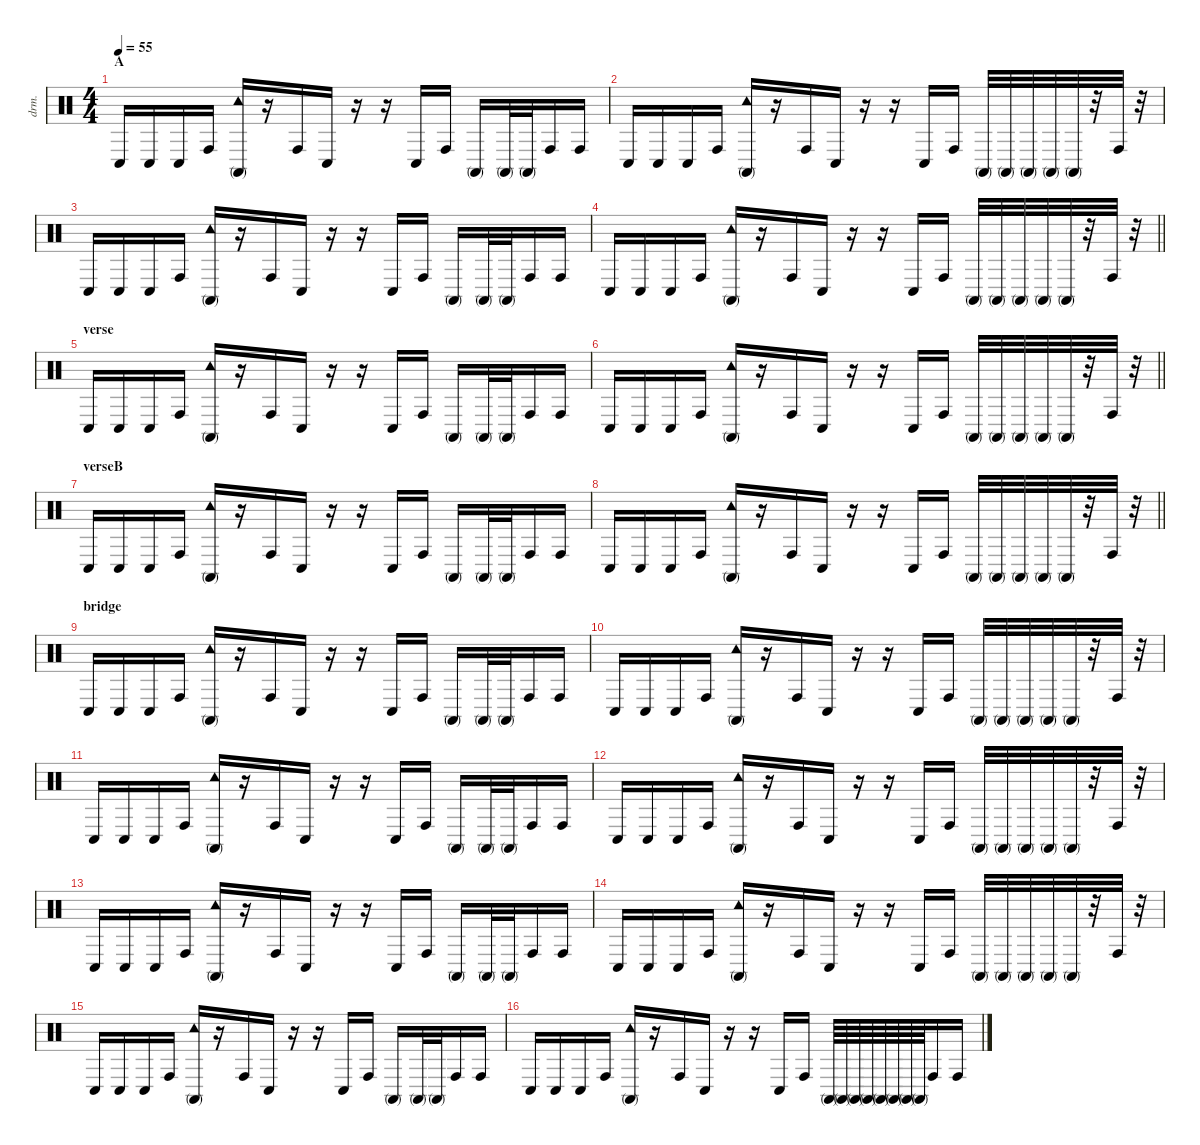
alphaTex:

\defaultSystemsLayout 4
\hideDynamics
\bracketExtendMode nobrackets
\otherSystemsTrackNameOrientation horizontal
\track ("Percussion" "drm.") {instrument percussion}
\staff {score}
\articulation defaults
\ts (4 4)
\beaming (8 2 2 2 2)
\section ("" "A")
\tempo 55
\clef neutral
\ks c "Conga low (hit)".16{dy f beam Up} "Conga low (hit)".16{beam Up} "Conga low (hit)".16{beam Up} "Conga high (hit)".16{beam Up}
("Conga high (mute)" "Tambourine (hit)").16{beam Up} r.16{beam Up} "Conga high (hit)".16{beam Up} "Conga low (hit)".16{beam Up} r.16{beam Up} r.16{beam Up} "Conga low (hit)".16{beam Up} "Conga high (hit)".16{beam Up} "Conga high (mute)".16{beam Up} "Conga high (mute)".32{beam Up} "Conga high (mute)".32{beam Up} "Conga high (hit)".16{beam Up} "Conga high (hit)".16{beam Up} |
"Conga low (hit)".16{beam Up} "Conga low (hit)".16{beam Up} "Conga low (hit)".16{beam Up} "Conga high (hit)".16{beam Up} ("Conga high (mute)" "Tambourine (hit)").16{beam Up} r.16{beam Up} "Conga high (hit)".16{beam Up} "Conga low (hit)".16{beam Up} r.16{beam Up} r.16{beam Up} "Conga low (hit)".16{beam Up} "Conga high (hit)".16{beam Up} "Conga high (mute)".32{beam Up} "Conga high (mute)".32{beam Up} "Conga high (mute)".32{beam Up} "Conga high (mute)".32{beam Up} "Conga high (mute)".32{beam Up} r.32{beam Up} "Conga high (hit)".32{beam Up} r.32{beam Up} |
"Conga low (hit)".16{beam Up} "Conga low (hit)".16{beam Up} "Conga low (hit)".16{beam Up} "Conga high (hit)".16{beam Up} ("Conga high (mute)" "Tambourine (hit)").16{beam Up} r.16{beam Up} "Conga high (hit)".16{beam Up} "Conga low (hit)".16{beam Up} r.16{beam Up} r.16{beam Up} "Conga low (hit)".16{beam Up} "Conga high (hit)".16{beam Up} "Conga high (mute)".16{beam Up} "Conga high (mute)".32{beam Up} "Conga high (mute)".32{beam Up} "Conga high (hit)".16{beam Up} "Conga high (hit)".16{beam Up} |
\barLineRight lightlight "Conga low (hit)".16{beam Up} "Conga low (hit)".16{beam Up} "Conga low (hit)".16{beam Up} "Conga high (hit)".16{beam Up}
("Conga high (mute)" "Tambourine (hit)").16{beam Up} r.16{beam Up} "Conga high (hit)".16{beam Up} "Conga low (hit)".16{beam Up} r.16{beam Up} r.16{beam Up} "Conga low (hit)".16{beam Up} "Conga high (hit)".16{beam Up} "Conga high (mute)".32{beam Up} "Conga high (mute)".32{beam Up} "Conga high (mute)".32{beam Up} "Conga high (mute)".32{beam Up} "Conga high (mute)".32{beam Up} r.32{beam Up} "Conga high (hit)".32{beam Up} r.32{beam Up} |
\section ("" "verse")
"Conga low (hit)".16{beam Up} "Conga low (hit)".16{beam Up} "Conga low (hit)".16{beam Up} "Conga high (hit)".16{beam Up} ("Conga high (mute)" "Tambourine (hit)").16{beam Up} r.16{beam Up} "Conga high (hit)".16{beam Up} "Conga low (hit)".16{beam Up} r.16{beam Up} r.16{beam Up} "Conga low (hit)".16{beam Up} "Conga high (hit)".16{beam Up} "Conga high (mute)".16{beam Up} "Conga high (mute)".32{beam Up} "Conga high (mute)".32{beam Up} "Conga high (hit)".16{beam Up} "Conga high (hit)".16{beam Up} |
\barLineRight lightlight "Conga low (hit)".16{beam Up} "Conga low (hit)".16{beam Up} "Conga low (hit)".16{beam Up} "Conga high (hit)".16{beam Up}
("Conga high (mute)" "Tambourine (hit)").16{beam Up} r.16{beam Up} "Conga high (hit)".16{beam Up} "Conga low (hit)".16{beam Up} r.16{beam Up} r.16{beam Up} "Conga low (hit)".16{beam Up} "Conga high (hit)".16{beam Up} "Conga high (mute)".32{beam Up} "Conga high (mute)".32{beam Up} "Conga high (mute)".32{beam Up} "Conga high (mute)".32{beam Up} "Conga high (mute)".32{beam Up} r.32{beam Up} "Conga high (hit)".32{beam Up} r.32{beam Up} |
\section ("" "verseB")
"Conga low (hit)".16{beam Up} "Conga low (hit)".16{beam Up} "Conga low (hit)".16{beam Up} "Conga high (hit)".16{beam Up} ("Conga high (mute)" "Tambourine (hit)").16{beam Up} r.16{beam Up} "Conga high (hit)".16{beam Up} "Conga low (hit)".16{beam Up} r.16{beam Up} r.16{beam Up} "Conga low (hit)".16{beam Up} "Conga high (hit)".16{beam Up} "Conga high (mute)".16{beam Up} "Conga high (mute)".32{beam Up} "Conga high (mute)".32{beam Up} "Conga high (hit)".16{beam Up} "Conga high (hit)".16{beam Up} |
\barLineRight lightlight "Conga low (hit)".16{beam Up} "Conga low (hit)".16{beam Up} "Conga low (hit)".16{beam Up} "Conga high (hit)".16{beam Up}
("Conga high (mute)" "Tambourine (hit)").16{beam Up} r.16{beam Up} "Conga high (hit)".16{beam Up} "Conga low (hit)".16{beam Up} r.16{beam Up} r.16{beam Up} "Conga low (hit)".16{beam Up} "Conga high (hit)".16{beam Up} "Conga high (mute)".32{beam Up} "Conga high (mute)".32{beam Up} "Conga high (mute)".32{beam Up} "Conga high (mute)".32{beam Up} "Conga high (mute)".32{beam Up} r.32{beam Up} "Conga high (hit)".32{beam Up} r.32{beam Up} |
\section ("" "bridge")
"Conga low (hit)".16{beam Up} "Conga low (hit)".16{beam Up} "Conga low (hit)".16{beam Up} "Conga high (hit)".16{beam Up} ("Conga high (mute)" "Tambourine (hit)").16{beam Up} r.16{beam Up} "Conga high (hit)".16{beam Up} "Conga low (hit)".16{beam Up} r.16{beam Up} r.16{beam Up} "Conga low (hit)".16{beam Up} "Conga high (hit)".16{beam Up} "Conga high (mute)".16{beam Up} "Conga high (mute)".32{beam Up} "Conga high (mute)".32{beam Up} "Conga high (hit)".16{beam Up} "Conga high (hit)".16{beam Up} |
"Conga low (hit)".16{beam Up} "Conga low (hit)".16{beam Up} "Conga low (hit)".16{beam Up} "Conga high (hit)".16{beam Up} ("Conga high (mute)" "Tambourine (hit)").16{beam Up} r.16{beam Up} "Conga high (hit)".16{beam Up} "Conga low (hit)".16{beam Up} r.16{beam Up} r.16{beam Up} "Conga low (hit)".16{beam Up} "Conga high (hit)".16{beam Up} "Conga high (mute)".32{beam Up} "Conga high (mute)".32{beam Up} "Conga high (mute)".32{beam Up} "Conga high (mute)".32{beam Up} "Conga high (mute)".32{beam Up} r.32{beam Up} "Conga high (hit)".32{beam Up} r.32{beam Up} |
"Conga low (hit)".16{beam Up} "Conga low (hit)".16{beam Up} "Conga low (hit)".16{beam Up} "Conga high (hit)".16{beam Up} ("Conga high (mute)" "Tambourine (hit)").16{beam Up} r.16{beam Up} "Conga high (hit)".16{beam Up} "Conga low (hit)".16{beam Up} r.16{beam Up} r.16{beam Up} "Conga low (hit)".16{beam Up} "Conga high (hit)".16{beam Up} "Conga high (mute)".16{beam Up} "Conga high (mute)".32{beam Up} "Conga high (mute)".32{beam Up} "Conga high (hit)".16{beam Up} "Conga high (hit)".16{beam Up} |
"Conga low (hit)".16{beam Up} "Conga low (hit)".16{beam Up} "Conga low (hit)".16{beam Up} "Conga high (hit)".16{beam Up} ("Conga high (mute)" "Tambourine (hit)").16{beam Up} r.16{beam Up} "Conga high (hit)".16{beam Up} "Conga low (hit)".16{beam Up} r.16{beam Up} r.16{beam Up} "Conga low (hit)".16{beam Up} "Conga high (hit)".16{beam Up} "Conga high (mute)".32{beam Up} "Conga high (mute)".32{beam Up} "Conga high (mute)".32{beam Up} "Conga high (mute)".32{beam Up} "Conga high (mute)".32{beam Up} r.32{beam Up} "Conga high (hit)".32{beam Up} r.32{beam Up} |
"Conga low (hit)".16{beam Up} "Conga low (hit)".16{beam Up} "Conga low (hit)".16{beam Up} "Conga high (hit)".16{beam Up} ("Conga high (mute)" "Tambourine (hit)").16{beam Up} r.16{beam Up} "Conga high (hit)".16{beam Up} "Conga low (hit)".16{beam Up} r.16{beam Up} r.16{beam Up} "Conga low (hit)".16{beam Up} "Conga high (hit)".16{beam Up} "Conga high (mute)".16{beam Up} "Conga high (mute)".32{beam Up} "Conga high (mute)".32{beam Up} "Conga high (hit)".16{beam Up} "Conga high (hit)".16{beam Up} |
"Conga low (hit)".16{beam Up} "Conga low (hit)".16{beam Up} "Conga low (hit)".16{beam Up} "Conga high (hit)".16{beam Up} ("Conga high (mute)" "Tambourine (hit)").16{beam Up} r.16{beam Up} "Conga high (hit)".16{beam Up} "Conga low (hit)".16{beam Up} r.16{beam Up} r.16{beam Up} "Conga low (hit)".16{beam Up} "Conga high (hit)".16{beam Up} "Conga high (mute)".32{beam Up} "Conga high (mute)".32{beam Up} "Conga high (mute)".32{beam Up} "Conga high (mute)".32{beam Up} "Conga high (mute)".32{beam Up} r.32{beam Up} "Conga high (hit)".32{beam Up} r.32{beam Up} |
"Conga low (hit)".16{beam Up} "Conga low (hit)".16{beam Up} "Conga low (hit)".16{beam Up} "Conga high (hit)".16{beam Up} ("Conga high (mute)" "Tambourine (hit)").16{beam Up} r.16{beam Up} "Conga high (hit)".16{beam Up} "Conga low (hit)".16{beam Up} r.16{beam Up} r.16{beam Up} "Conga low (hit)".16{beam Up} "Conga high (hit)".16{beam Up} "Conga high (mute)".16{beam Up} "Conga high (mute)".32{beam Up} "Conga high (mute)".32{beam Up} "Conga high (hit)".16{beam Up} "Conga high (hit)".16{beam Up} |
"Conga low (hit)".16{beam Up} "Conga low (hit)".16{beam Up} "Conga low (hit)".16{beam Up} "Conga high (hit)".16{beam Up} ("Conga high (mute)" "Tambourine (hit)").16{beam Up} r.16{beam Up} "Conga high (hit)".16{beam Up} "Conga low (hit)".16{beam Up} r.16{beam Up} r.16{beam Up} "Conga low (hit)".16{beam Up} "Conga high (hit)".16{beam Up} "Conga high (mute)".64{beam Up} "Conga high (mute)".64{beam Up} "Conga high (mute)".64{beam Up} "Conga high (mute)".64{beam Up} "Conga high (mute)".64{beam Up} "Conga high (mute)".64{beam Up} "Conga high (mute)".64{beam Up} "Conga high (mute)".64{beam Up} "Conga high (hit)".16{beam Up} "Conga high (hit)".16{beam Up}
